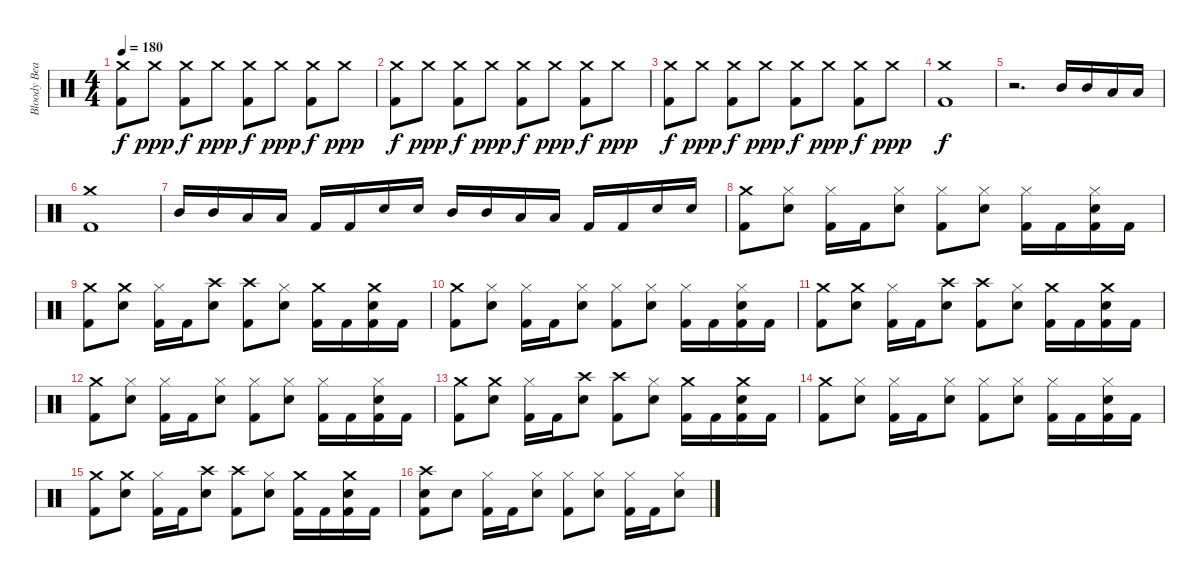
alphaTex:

\track ("Bloody Beater" "Bloody Bea") {instrument percussion}
\staff {score}
\articulation defaults
\ts (4 4)
\tempo 180
\clef neutral
\ks c
("Crash medium (hit)" "Kick (hit) 2").8{dy f} "Crash medium (hit)".8{dy ppp} ("Crash medium (hit)" "Kick (hit) 2").8{dy f} "Crash medium (hit)".8{dy ppp} ("Crash medium (hit)" "Kick (hit) 2").8{dy f} "Crash medium (hit)".8{dy ppp} ("Crash medium (hit)" "Kick (hit) 2").8{dy f} "Crash medium (hit)".8{dy ppp} |
("Crash medium (hit)" "Kick (hit) 2").8{dy f} "Crash medium (hit)".8{dy ppp} ("Crash medium (hit)" "Kick (hit) 2").8{dy f} "Crash medium (hit)".8{dy ppp} ("Crash medium (hit)" "Kick (hit) 2").8{dy f} "Crash medium (hit)".8{dy ppp} ("Crash medium (hit)" "Kick (hit) 2").8{dy f} "Crash medium (hit)".8{dy ppp} |
("Crash medium (hit)" "Kick (hit) 2").8{dy f} "Crash medium (hit)".8{dy ppp} ("Crash medium (hit)" "Kick (hit) 2").8{dy f} "Crash medium (hit)".8{dy ppp} ("Crash medium (hit)" "Kick (hit) 2").8{dy f} "Crash medium (hit)".8{dy ppp} ("Crash medium (hit)" "Kick (hit) 2").8{dy f} "Crash medium (hit)".8{dy ppp} |
("Crash medium (hit)" "Kick (hit) 2").1{dy f} |
r.2{d} "Mid Tom (hit)".16 "Mid Tom (hit)".16 "Low Tom (hit)".16 "Low Tom (hit)".16 |
("Crash medium (hit)" "Kick (hit) 2").1 |
"Mid Tom (hit)".16 "Mid Tom (hit)".16 "Low Tom (hit)".16 "Low Tom (hit)".16 "Kick (hit) 2".16 "Kick (hit) 2".16 "Snare (hit) 2".16 "Snare (hit) 2".16 "Mid Tom (hit)".16 "Mid Tom (hit)".16 "Low Tom (hit)".16 "Low Tom (hit)".16 "Kick (hit) 2".16 "Kick (hit) 2".16 "Snare (hit) 2".16 "Snare (hit) 2".16 |
("Crash medium (hit)" "Kick (hit) 2").8 ("Hi-Hat (closed)" "Snare (hit) 2").8 ("Hi-Hat (closed)" "Kick (hit) 2").16 "Kick (hit) 2".16 ("Hi-Hat (closed)" "Snare (hit) 2").8 ("Hi-Hat (closed)" "Kick (hit) 2").8 ("Hi-Hat (closed)" "Snare (hit) 2").8 ("Hi-Hat (closed)" "Kick (hit) 2").16 "Kick (hit) 2".16 ("Hi-Hat (closed)" "Snare (hit) 2" "Kick (hit) 2").16 "Kick (hit) 2".16 |
("Crash medium (hit)" "Kick (hit) 2").8 ("Crash medium (hit)" "Snare (hit) 2").8 ("Hi-Hat (closed)" "Kick (hit) 2").16 "Kick (hit) 2".16 ("Crash high (hit)" "Snare (hit) 2").8 ("Crash high (hit)" "Kick (hit) 2").8 ("Hi-Hat (closed)" "Snare (hit) 2").8 ("Crash medium (hit)" "Kick (hit) 2").16 "Kick (hit) 2".16 ("Crash medium (hit)" "Snare (hit) 2" "Kick (hit) 2").16 "Kick (hit) 2".16 |
("Crash medium (hit)" "Kick (hit) 2").8 ("Hi-Hat (closed)" "Snare (hit) 2").8 ("Hi-Hat (closed)" "Kick (hit) 2").16 "Kick (hit) 2".16 ("Hi-Hat (closed)" "Snare (hit) 2").8 ("Hi-Hat (closed)" "Kick (hit) 2").8 ("Hi-Hat (closed)" "Snare (hit) 2").8 ("Hi-Hat (closed)" "Kick (hit) 2").16 "Kick (hit) 2".16 ("Hi-Hat (closed)" "Snare (hit) 2" "Kick (hit) 2").16 "Kick (hit) 2".16 |
("Crash medium (hit)" "Kick (hit) 2").8 ("Crash medium (hit)" "Snare (hit) 2").8 ("Hi-Hat (closed)" "Kick (hit) 2").16 "Kick (hit) 2".16 ("Crash high (hit)" "Snare (hit) 2").8 ("Crash high (hit)" "Kick (hit) 2").8 ("Hi-Hat (closed)" "Snare (hit) 2").8 ("Crash medium (hit)" "Kick (hit) 2").16 "Kick (hit) 2".16 ("Crash medium (hit)" "Snare (hit) 2" "Kick (hit) 2").16 "Kick (hit) 2".16 |
("Crash medium (hit)" "Kick (hit) 2").8 ("Hi-Hat (closed)" "Snare (hit) 2").8 ("Hi-Hat (closed)" "Kick (hit) 2").16 "Kick (hit) 2".16 ("Hi-Hat (closed)" "Snare (hit) 2").8 ("Hi-Hat (closed)" "Kick (hit) 2").8 ("Hi-Hat (closed)" "Snare (hit) 2").8 ("Hi-Hat (closed)" "Kick (hit) 2").16 "Kick (hit) 2".16 ("Hi-Hat (closed)" "Snare (hit) 2" "Kick (hit) 2").16 "Kick (hit) 2".16 |
("Crash medium (hit)" "Kick (hit) 2").8 ("Crash medium (hit)" "Snare (hit) 2").8 ("Hi-Hat (closed)" "Kick (hit) 2").16 "Kick (hit) 2".16 ("Crash high (hit)" "Snare (hit) 2").8 ("Crash high (hit)" "Kick (hit) 2").8 ("Hi-Hat (closed)" "Snare (hit) 2").8 ("Crash medium (hit)" "Kick (hit) 2").16 "Kick (hit) 2".16 ("Crash medium (hit)" "Snare (hit) 2" "Kick (hit) 2").16 "Kick (hit) 2".16 |
("Crash medium (hit)" "Kick (hit) 2").8 ("Hi-Hat (closed)" "Snare (hit) 2").8 ("Hi-Hat (closed)" "Kick (hit) 2").16 "Kick (hit) 2".16 ("Hi-Hat (closed)" "Snare (hit) 2").8 ("Hi-Hat (closed)" "Kick (hit) 2").8 ("Hi-Hat (closed)" "Snare (hit) 2").8 ("Hi-Hat (closed)" "Kick (hit) 2").16 "Kick (hit) 2".16 ("Hi-Hat (closed)" "Snare (hit) 2" "Kick (hit) 2").16 "Kick (hit) 2".16 |
("Crash medium (hit)" "Kick (hit) 2").8 ("Crash medium (hit)" "Snare (hit) 2").8 ("Hi-Hat (closed)" "Kick (hit) 2").16 "Kick (hit) 2".16 ("Crash high (hit)" "Snare (hit) 2").8 ("Crash high (hit)" "Kick (hit) 2").8 ("Hi-Hat (closed)" "Snare (hit) 2").8 ("Crash medium (hit)" "Kick (hit) 2").16 "Kick (hit) 2".16 ("Crash medium (hit)" "Snare (hit) 2" "Kick (hit) 2").16 "Kick (hit) 2".16 |
("Crash high (hit)" "Snare (hit) 2" "Kick (hit) 2").8 "Snare (hit) 2".8 ("Hi-Hat (closed)" "Kick (hit) 2").16 "Kick (hit) 2".16 ("Hi-Hat (closed)" "Snare (hit) 2").8 ("Hi-Hat (closed)" "Kick (hit) 2").8 ("Hi-Hat (closed)" "Snare (hit) 2").8 ("Hi-Hat (closed)" "Kick (hit) 2").16 "Kick (hit) 2".16 ("Hi-Hat (closed)" "Snare (hit) 2").8
